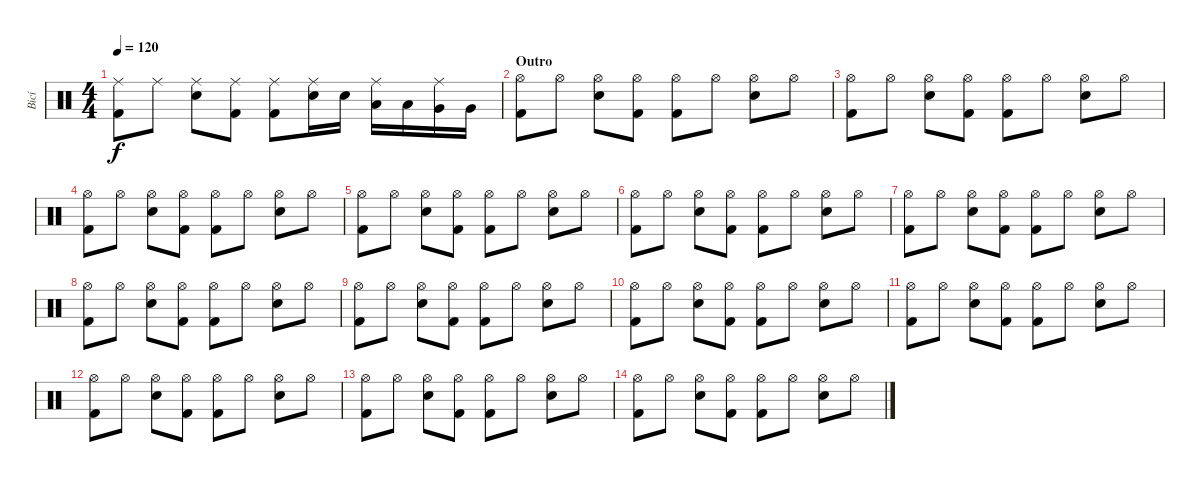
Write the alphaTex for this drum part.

\track ("Bicí" "Bicí") {instrument percussion}
\staff {score}
\articulation defaults
\ts (4 4)
\tempo 120
\clef neutral
\ks c
("Ride (middle)" "Kick (hit) 2").8{dy f} "Ride (middle)".8 ("Ride (middle)" "Electric Snare (hit)").8 ("Ride (middle)" "Kick (hit) 2").8 ("Ride (middle)" "Kick (hit) 2").8 ("Ride (middle)" "Electric Snare (hit)").16 "Electric Snare (hit)".16 ("Low Tom (hit)" "Ride (middle)").16 "Low Tom (hit)".16 ("Very Low Tom (hit)" "Ride (middle)").16 "Very Low Tom (hit)".16 |
\section ("" "Outro")
("Hi-Hat (open)" "Kick (hit) 2").8 "Hi-Hat (open)".8 ("Hi-Hat (open)" "Electric Snare (hit)").8 ("Hi-Hat (open)" "Kick (hit) 2").8 ("Hi-Hat (open)" "Kick (hit) 2").8 "Hi-Hat (open)".8 ("Hi-Hat (open)" "Electric Snare (hit)").8 "Hi-Hat (open)".8 |
("Hi-Hat (open)" "Kick (hit) 2").8 "Hi-Hat (open)".8 ("Hi-Hat (open)" "Electric Snare (hit)").8 ("Hi-Hat (open)" "Kick (hit) 2").8 ("Hi-Hat (open)" "Kick (hit) 2").8 "Hi-Hat (open)".8 ("Hi-Hat (open)" "Electric Snare (hit)").8 "Hi-Hat (open)".8 |
("Hi-Hat (open)" "Kick (hit) 2").8 "Hi-Hat (open)".8 ("Hi-Hat (open)" "Electric Snare (hit)").8 ("Hi-Hat (open)" "Kick (hit) 2").8 ("Hi-Hat (open)" "Kick (hit) 2").8 "Hi-Hat (open)".8 ("Hi-Hat (open)" "Electric Snare (hit)").8 "Hi-Hat (open)".8 |
("Hi-Hat (open)" "Kick (hit) 2").8 "Hi-Hat (open)".8 ("Hi-Hat (open)" "Electric Snare (hit)").8 ("Hi-Hat (open)" "Kick (hit) 2").8 ("Hi-Hat (open)" "Kick (hit) 2").8 "Hi-Hat (open)".8 ("Hi-Hat (open)" "Electric Snare (hit)").8 "Hi-Hat (open)".8 |
("Hi-Hat (open)" "Kick (hit) 2").8 "Hi-Hat (open)".8 ("Hi-Hat (open)" "Electric Snare (hit)").8 ("Hi-Hat (open)" "Kick (hit) 2").8 ("Hi-Hat (open)" "Kick (hit) 2").8 "Hi-Hat (open)".8 ("Hi-Hat (open)" "Electric Snare (hit)").8 "Hi-Hat (open)".8 |
("Hi-Hat (open)" "Kick (hit) 2").8 "Hi-Hat (open)".8 ("Hi-Hat (open)" "Electric Snare (hit)").8 ("Hi-Hat (open)" "Kick (hit) 2").8 ("Hi-Hat (open)" "Kick (hit) 2").8 "Hi-Hat (open)".8 ("Hi-Hat (open)" "Electric Snare (hit)").8 "Hi-Hat (open)".8 |
("Hi-Hat (open)" "Kick (hit) 2").8 "Hi-Hat (open)".8 ("Hi-Hat (open)" "Electric Snare (hit)").8 ("Hi-Hat (open)" "Kick (hit) 2").8 ("Hi-Hat (open)" "Kick (hit) 2").8 "Hi-Hat (open)".8 ("Hi-Hat (open)" "Electric Snare (hit)").8 "Hi-Hat (open)".8 |
("Hi-Hat (open)" "Kick (hit) 2").8 "Hi-Hat (open)".8 ("Hi-Hat (open)" "Electric Snare (hit)").8 ("Hi-Hat (open)" "Kick (hit) 2").8 ("Hi-Hat (open)" "Kick (hit) 2").8 "Hi-Hat (open)".8 ("Hi-Hat (open)" "Electric Snare (hit)").8 "Hi-Hat (open)".8 |
("Hi-Hat (open)" "Kick (hit) 2").8 "Hi-Hat (open)".8 ("Hi-Hat (open)" "Electric Snare (hit)").8 ("Hi-Hat (open)" "Kick (hit) 2").8 ("Hi-Hat (open)" "Kick (hit) 2").8 "Hi-Hat (open)".8 ("Hi-Hat (open)" "Electric Snare (hit)").8 "Hi-Hat (open)".8 |
("Hi-Hat (open)" "Kick (hit) 2").8 "Hi-Hat (open)".8 ("Hi-Hat (open)" "Electric Snare (hit)").8 ("Hi-Hat (open)" "Kick (hit) 2").8 ("Hi-Hat (open)" "Kick (hit) 2").8 "Hi-Hat (open)".8 ("Hi-Hat (open)" "Electric Snare (hit)").8 "Hi-Hat (open)".8 |
("Hi-Hat (open)" "Kick (hit) 2").8 "Hi-Hat (open)".8 ("Hi-Hat (open)" "Electric Snare (hit)").8 ("Hi-Hat (open)" "Kick (hit) 2").8 ("Hi-Hat (open)" "Kick (hit) 2").8 "Hi-Hat (open)".8 ("Hi-Hat (open)" "Electric Snare (hit)").8 "Hi-Hat (open)".8 |
("Hi-Hat (open)" "Kick (hit) 2").8 "Hi-Hat (open)".8 ("Hi-Hat (open)" "Electric Snare (hit)").8 ("Hi-Hat (open)" "Kick (hit) 2").8 ("Hi-Hat (open)" "Kick (hit) 2").8 "Hi-Hat (open)".8 ("Hi-Hat (open)" "Electric Snare (hit)").8 "Hi-Hat (open)".8 |
("Hi-Hat (open)" "Kick (hit) 2").8 "Hi-Hat (open)".8 ("Hi-Hat (open)" "Electric Snare (hit)").8 ("Hi-Hat (open)" "Kick (hit) 2").8 ("Hi-Hat (open)" "Kick (hit) 2").8 "Hi-Hat (open)".8 ("Hi-Hat (open)" "Electric Snare (hit)").8 "Hi-Hat (open)".8
